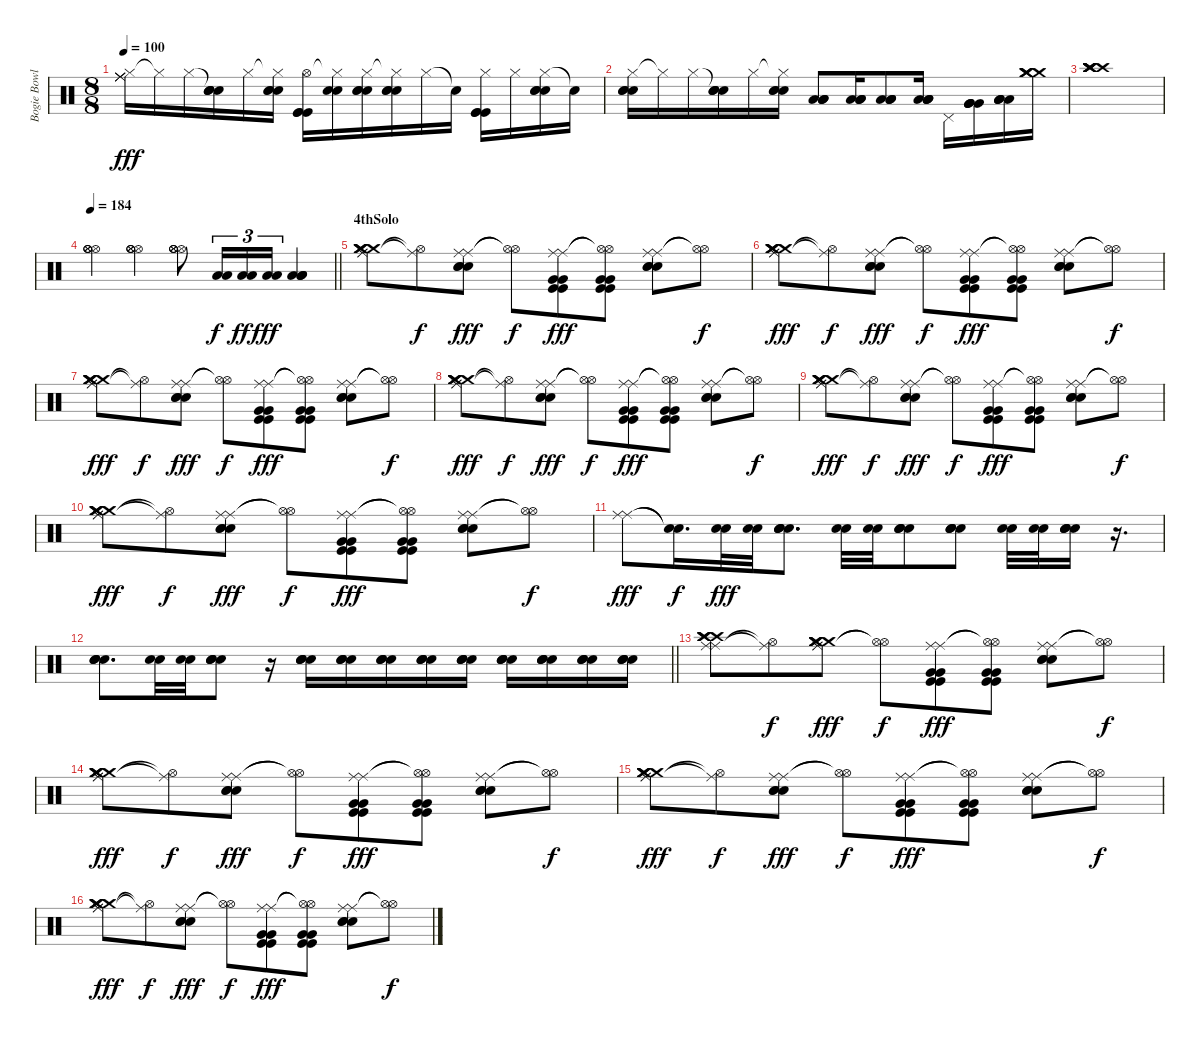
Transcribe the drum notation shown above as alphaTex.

\track ("Bogie Bowles Drums" "Bogie Bowl") {instrument percussion}
\staff {score}
\articulation defaults
\ts (8 8)
\tempo 100
\clef neutral
\ks c
("Hi-Hat (closed)" "Ride (middle)" "Ride (middle)" "Ride (middle)").16{dy fff} "Hi-Hat (closed)"{t}.16 "Hi-Hat (closed)".16 ("Snare (hit)"{t} "Snare (hit) 2" "Snare (hit) 2" "Snare (hit) 2").16 "Hi-Hat (closed)".16 ("Hi-Hat (closed)"{t} "Snare (hit) 2" "Snare (hit) 2" "Snare (hit) 2").16 ("Hi-Hat (open)" "Kick (hit)" "Kick (hit)" "Kick (hit)").16 ("Hi-Hat (closed)"{t} "Snare (hit) 2" "Snare (hit) 2").16 ("Hi-Hat (closed)" "Snare (hit) 2" "Snare (hit) 2" "Snare (hit) 2").16 ("Hi-Hat (closed)"{t} "Snare (hit) 2" "Snare (hit) 2" "Snare (hit) 2").16 "Hi-Hat (closed)".16 "Snare (hit)"{t}.16 ("Hi-Hat (closed)" "Kick (hit)" "Kick (hit)" "Kick (hit)").16 "Hi-Hat (closed)".16 ("Hi-Hat (closed)" "Snare (hit) 2" "Snare (hit) 2" "Snare (hit) 2").16 "Snare (hit)"{t}.16 |
("Hi-Hat (closed)" "Snare (hit) 2" "Snare (hit) 2" "Snare (hit) 2").16 "Hi-Hat (closed)"{t}.16 "Hi-Hat (closed)".16 ("Snare (hit)"{t} "Snare (hit) 2" "Snare (hit) 2" "Snare (hit) 2").16 "Hi-Hat (closed)".16 ("Hi-Hat (closed)"{t} "Snare (hit) 2" "Snare (hit) 2" "Snare (hit) 2").16 ("Low Tom (hit)" "Low Tom (hit)" "Low Tom (hit)" "Low Tom (hit)").8 ("Low Tom (hit)" "Low Tom (hit)" "Low Tom (hit)" "Low Tom (hit)").16 ("Low Tom (hit)" "Low Tom (hit)" "Low Tom (hit)" "Low Tom (hit)").8 ("Low Tom (hit)" "Low Tom (hit)" "Low Tom (hit)" "Low Tom (hit)").16 "Pedal Hi-Hat (hit)".16 ("Very Low Tom (hit)" "Very Low Tom (hit)" "Very Low Tom (hit)" "Very Low Tom (hit)").16 ("Low Floor Tom (hit)" "Low Floor Tom (hit)" "Low Floor Tom (hit)" "Low Floor Tom (hit)").16 ("Crash medium (hit)" "Crash medium (hit)" "Crash medium (hit)" "Crash medium (hit)").16 |
("Crash high (hit)" "Crash high (hit)" "Crash high (hit)" "Crash high (hit)" "Crash high (hit)" "Crash high (hit)").1 |
\tempo 184
\barLineRight lightlight
("Hi-Hat (open)" "Hi-Hat (open)" "Hi-Hat (open)" "Hi-Hat (open)").4 ("Hi-Hat (open)" "Hi-Hat (open)" "Hi-Hat (open)" "Hi-Hat (open)").4 ("Hi-Hat (open)" "Hi-Hat (open)" "Hi-Hat (open)" "Hi-Hat (open)").8 ("Low Tom (hit)" "Low Tom (hit)").16{tu (3 2) dy f} ("Low Tom (hit)" "Low Tom (hit)").16{tu (3 2) dy ff} ("Low Tom (hit)" "Low Tom (hit)").16{tu (3 2) dy fff} ("Low Tom (hit)" "Low Tom (hit)" "Low Tom (hit)" "Low Tom (hit)").4 |
\section ("" "4thSolo")
("Ride (middle)" "Ride (middle)" "Crash medium (hit)" "Crash medium (hit)" "Crash medium (hit)" "Crash medium (hit)").8 ("Hi-Hat (open)"{t} "Ride (middle)"{t}).8{dy f} ("Ride (middle)" "Ride (middle)" "Snare (hit) 2" "Snare (hit) 2" "Snare (hit) 2").8{dy fff} ("Hi-Hat (open)"{t} "Hi-Hat (open)"{t}).8{dy f} ("Ride (middle)" "Ride (middle)" "Kick (hit)" "Kick (hit)" "Very Low Tom (hit)" "Very Low Tom (hit)").8{dy fff} ("Hi-Hat (open)"{t} "Hi-Hat (open)"{t} "Kick (hit)" "Kick (hit)" "Very Low Tom (hit)" "Very Low Tom (hit)").8 ("Ride (middle)" "Ride (middle)" "Snare (hit) 2" "Snare (hit) 2" "Snare (hit) 2").8 ("Hi-Hat (open)"{t} "Hi-Hat (open)"{t}).8{dy f} |
("Ride (middle)" "Ride (middle)" "Crash medium (hit)" "Crash medium (hit)" "Crash medium (hit)" "Crash medium (hit)").8{dy fff} ("Hi-Hat (open)"{t} "Ride (middle)"{t}).8{dy f} ("Ride (middle)" "Ride (middle)" "Snare (hit) 2" "Snare (hit) 2" "Snare (hit) 2").8{dy fff} ("Hi-Hat (open)"{t} "Hi-Hat (open)"{t}).8{dy f} ("Ride (middle)" "Ride (middle)" "Kick (hit)" "Kick (hit)" "Very Low Tom (hit)" "Very Low Tom (hit)").8{dy fff} ("Hi-Hat (open)"{t} "Hi-Hat (open)"{t} "Kick (hit)" "Kick (hit)" "Very Low Tom (hit)" "Very Low Tom (hit)").8 ("Ride (middle)" "Ride (middle)" "Snare (hit) 2" "Snare (hit) 2" "Snare (hit) 2").8 ("Hi-Hat (open)"{t} "Hi-Hat (open)"{t}).8{dy f} |
("Ride (middle)" "Ride (middle)" "Crash medium (hit)" "Crash medium (hit)" "Crash medium (hit)" "Crash medium (hit)").8{dy fff} ("Hi-Hat (open)"{t} "Ride (middle)"{t}).8{dy f} ("Ride (middle)" "Ride (middle)" "Snare (hit) 2" "Snare (hit) 2" "Snare (hit) 2").8{dy fff} ("Hi-Hat (open)"{t} "Hi-Hat (open)"{t}).8{dy f} ("Ride (middle)" "Ride (middle)" "Kick (hit)" "Kick (hit)" "Very Low Tom (hit)" "Very Low Tom (hit)").8{dy fff} ("Hi-Hat (open)"{t} "Hi-Hat (open)"{t} "Kick (hit)" "Kick (hit)" "Very Low Tom (hit)" "Very Low Tom (hit)").8 ("Ride (middle)" "Ride (middle)" "Snare (hit) 2" "Snare (hit) 2" "Snare (hit) 2").8 ("Hi-Hat (open)"{t} "Hi-Hat (open)"{t}).8{dy f} |
("Ride (middle)" "Ride (middle)" "Crash medium (hit)" "Crash medium (hit)" "Crash medium (hit)" "Crash medium (hit)").8{dy fff} ("Hi-Hat (open)"{t} "Ride (middle)"{t}).8{dy f} ("Ride (middle)" "Ride (middle)" "Snare (hit) 2" "Snare (hit) 2" "Snare (hit) 2").8{dy fff} ("Hi-Hat (open)"{t} "Hi-Hat (open)"{t}).8{dy f} ("Ride (middle)" "Ride (middle)" "Kick (hit)" "Kick (hit)" "Very Low Tom (hit)" "Very Low Tom (hit)").8{dy fff} ("Hi-Hat (open)"{t} "Hi-Hat (open)"{t} "Kick (hit)" "Kick (hit)" "Very Low Tom (hit)" "Very Low Tom (hit)").8 ("Ride (middle)" "Ride (middle)" "Snare (hit) 2" "Snare (hit) 2" "Snare (hit) 2").8 ("Hi-Hat (open)"{t} "Hi-Hat (open)"{t}).8{dy f} |
("Ride (middle)" "Ride (middle)" "Crash medium (hit)" "Crash medium (hit)" "Crash medium (hit)" "Crash medium (hit)").8{dy fff} ("Hi-Hat (open)"{t} "Ride (middle)"{t}).8{dy f} ("Ride (middle)" "Ride (middle)" "Snare (hit) 2" "Snare (hit) 2" "Snare (hit) 2").8{dy fff} ("Hi-Hat (open)"{t} "Hi-Hat (open)"{t}).8{dy f} ("Ride (middle)" "Ride (middle)" "Kick (hit)" "Kick (hit)" "Very Low Tom (hit)" "Very Low Tom (hit)").8{dy fff} ("Hi-Hat (open)"{t} "Hi-Hat (open)"{t} "Kick (hit)" "Kick (hit)" "Very Low Tom (hit)" "Very Low Tom (hit)").8 ("Ride (middle)" "Ride (middle)" "Snare (hit) 2" "Snare (hit) 2" "Snare (hit) 2").8 ("Hi-Hat (open)"{t} "Hi-Hat (open)"{t}).8{dy f} |
("Ride (middle)" "Ride (middle)" "Crash medium (hit)" "Crash medium (hit)" "Crash medium (hit)" "Crash medium (hit)").8{dy fff} ("Hi-Hat (open)"{t} "Ride (middle)"{t}).8{dy f} ("Ride (middle)" "Ride (middle)" "Snare (hit) 2" "Snare (hit) 2" "Snare (hit) 2").8{dy fff} ("Hi-Hat (open)"{t} "Hi-Hat (open)"{t}).8{dy f} ("Ride (middle)" "Ride (middle)" "Kick (hit)" "Kick (hit)" "Very Low Tom (hit)" "Very Low Tom (hit)").8{dy fff} ("Hi-Hat (open)"{t} "Hi-Hat (open)"{t} "Kick (hit)" "Kick (hit)" "Very Low Tom (hit)" "Very Low Tom (hit)").8 ("Ride (middle)" "Ride (middle)" "Snare (hit) 2" "Snare (hit) 2" "Snare (hit) 2").8 ("Hi-Hat (open)"{t} "Hi-Hat (open)"{t}).8{dy f} |
("Ride (middle)" "Ride (middle)").8{dy fff} ("Snare (hit)"{t} "Snare (hit)"{t}).16{d dy f} ("Snare (hit) 2" "Snare (hit) 2").32{dy fff} ("Snare (hit) 2" "Snare (hit) 2").32 ("Snare (hit) 2" "Snare (hit) 2" "Snare (hit) 2" "Snare (hit) 2").8{d} ("Snare (hit)" "Snare (hit) 2").32 ("Snare (hit)" "Snare (hit) 2").32 ("Snare (hit) 2" "Snare (hit) 2" "Snare (hit) 2" "Snare (hit) 2").8 ("Snare (hit) 2" "Snare (hit) 2" "Snare (hit) 2" "Snare (hit) 2").8 ("Snare (hit) 2" "Snare (hit) 2").32 ("Snare (hit) 2" "Snare (hit) 2").32 ("Snare (hit) 2" "Snare (hit) 2" "Snare (hit) 2" "Snare (hit) 2").16 r.16{d} |
\barLineRight lightlight
("Snare (hit) 2" "Snare (hit) 2" "Snare (hit) 2" "Snare (hit) 2").8{d} ("Snare (hit) 2" "Snare (hit) 2").32 ("Snare (hit) 2" "Snare (hit) 2").32 ("Snare (hit) 2" "Snare (hit) 2" "Snare (hit) 2" "Snare (hit) 2").8 r.16 ("Snare (hit) 2" "Snare (hit) 2" "Snare (hit) 2" "Snare (hit) 2").16 ("Snare (hit) 2" "Snare (hit) 2" "Snare (hit) 2" "Snare (hit) 2").16 ("Snare (hit) 2" "Snare (hit) 2" "Snare (hit) 2" "Snare (hit) 2").16 ("Snare (hit) 2" "Snare (hit) 2" "Snare (hit) 2" "Snare (hit) 2").16 ("Snare (hit) 2" "Snare (hit) 2" "Snare (hit) 2" "Snare (hit) 2").16 ("Snare (hit) 2" "Snare (hit) 2" "Snare (hit) 2" "Snare (hit) 2").16 ("Snare (hit) 2" "Snare (hit) 2" "Snare (hit) 2" "Snare (hit) 2").16 ("Snare (hit) 2" "Snare (hit) 2" "Snare (hit) 2" "Snare (hit) 2").16 ("Snare (hit) 2" "Snare (hit) 2" "Snare (hit) 2" "Snare (hit) 2").16 |
("Ride (middle)" "Ride (middle)" "Crash high (hit)" "Crash high (hit)" "Crash high (hit)" "Crash high (hit)").8 ("Hi-Hat (open)"{t} "Ride (middle)"{t}).8{dy f} ("Ride (middle)" "Ride (middle)" "Crash medium (hit)" "Crash medium (hit)" "Crash medium (hit)" "Crash medium (hit)").8{dy fff} ("Hi-Hat (open)"{t} "Hi-Hat (open)"{t}).8{dy f} ("Ride (middle)" "Ride (middle)" "Kick (hit)" "Kick (hit)" "Very Low Tom (hit)" "Very Low Tom (hit)").8{dy fff} ("Hi-Hat (open)"{t} "Hi-Hat (open)"{t} "Kick (hit)" "Kick (hit)" "Very Low Tom (hit)" "Very Low Tom (hit)").8 ("Ride (middle)" "Ride (middle)" "Snare (hit) 2" "Snare (hit) 2" "Snare (hit) 2").8 ("Hi-Hat (open)"{t} "Hi-Hat (open)"{t}).8{dy f} |
("Ride (middle)" "Ride (middle)" "Crash medium (hit)" "Crash medium (hit)" "Crash medium (hit)" "Crash medium (hit)").8{dy fff} ("Hi-Hat (open)"{t} "Ride (middle)"{t}).8{dy f} ("Ride (middle)" "Ride (middle)" "Snare (hit) 2" "Snare (hit) 2" "Snare (hit) 2").8{dy fff} ("Hi-Hat (open)"{t} "Hi-Hat (open)"{t}).8{dy f} ("Ride (middle)" "Ride (middle)" "Kick (hit)" "Kick (hit)" "Very Low Tom (hit)" "Very Low Tom (hit)").8{dy fff} ("Hi-Hat (open)"{t} "Hi-Hat (open)"{t} "Kick (hit)" "Kick (hit)" "Very Low Tom (hit)" "Very Low Tom (hit)").8 ("Ride (middle)" "Ride (middle)" "Snare (hit) 2" "Snare (hit) 2" "Snare (hit) 2").8 ("Hi-Hat (open)"{t} "Hi-Hat (open)"{t}).8{dy f} |
("Ride (middle)" "Ride (middle)" "Crash medium (hit)" "Crash medium (hit)" "Crash medium (hit)" "Crash medium (hit)").8{dy fff} ("Hi-Hat (open)"{t} "Ride (middle)"{t}).8{dy f} ("Ride (middle)" "Ride (middle)" "Snare (hit) 2" "Snare (hit) 2" "Snare (hit) 2").8{dy fff} ("Hi-Hat (open)"{t} "Hi-Hat (open)"{t}).8{dy f} ("Ride (middle)" "Ride (middle)" "Kick (hit)" "Kick (hit)" "Very Low Tom (hit)" "Very Low Tom (hit)").8{dy fff} ("Hi-Hat (open)"{t} "Hi-Hat (open)"{t} "Kick (hit)" "Kick (hit)" "Very Low Tom (hit)" "Very Low Tom (hit)").8 ("Ride (middle)" "Ride (middle)" "Snare (hit) 2" "Snare (hit) 2" "Snare (hit) 2").8 ("Hi-Hat (open)"{t} "Hi-Hat (open)"{t}).8{dy f} |
("Ride (middle)" "Ride (middle)" "Crash medium (hit)" "Crash medium (hit)" "Crash medium (hit)" "Crash medium (hit)").8{dy fff} ("Hi-Hat (open)"{t} "Ride (middle)"{t}).8{dy f} ("Ride (middle)" "Ride (middle)" "Snare (hit) 2" "Snare (hit) 2" "Snare (hit) 2").8{dy fff} ("Hi-Hat (open)"{t} "Hi-Hat (open)"{t}).8{dy f} ("Ride (middle)" "Ride (middle)" "Kick (hit)" "Kick (hit)" "Very Low Tom (hit)" "Very Low Tom (hit)").8{dy fff} ("Hi-Hat (open)"{t} "Hi-Hat (open)"{t} "Kick (hit)" "Kick (hit)" "Very Low Tom (hit)" "Very Low Tom (hit)").8 ("Ride (middle)" "Ride (middle)" "Snare (hit) 2" "Snare (hit) 2" "Snare (hit) 2").8 ("Hi-Hat (open)"{t} "Hi-Hat (open)"{t}).8{dy f}
